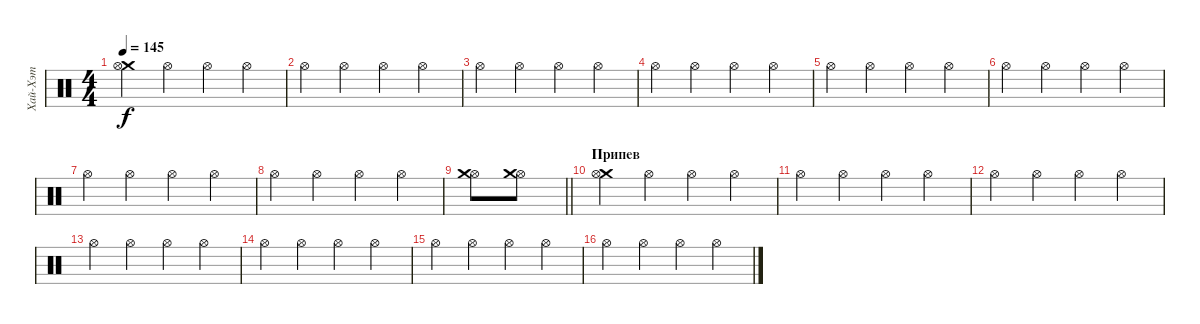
\track ("Хай-Хэт" "Хай-Хэт") {instrument percussion}
\staff {score}
\articulation defaults
\ts (4 4)
\tempo 145
\clef neutral
\ks c
("Crash medium (hit)" "Hi-Hat (open)").4{dy f} "Hi-Hat (open)".4 "Hi-Hat (open)".4 "Hi-Hat (open)".4 |
"Hi-Hat (open)".4 "Hi-Hat (open)".4 "Hi-Hat (open)".4 "Hi-Hat (open)".4 |
"Hi-Hat (open)".4 "Hi-Hat (open)".4 "Hi-Hat (open)".4 "Hi-Hat (open)".4 |
"Hi-Hat (open)".4 "Hi-Hat (open)".4 "Hi-Hat (open)".4 "Hi-Hat (open)".4 |
"Hi-Hat (open)".4 "Hi-Hat (open)".4 "Hi-Hat (open)".4 "Hi-Hat (open)".4 |
"Hi-Hat (open)".4 "Hi-Hat (open)".4 "Hi-Hat (open)".4 "Hi-Hat (open)".4 |
"Hi-Hat (open)".4 "Hi-Hat (open)".4 "Hi-Hat (open)".4 "Hi-Hat (open)".4 |
"Hi-Hat (open)".4 "Hi-Hat (open)".4 "Hi-Hat (open)".4 "Hi-Hat (open)".4 |
\barLineRight lightlight
("Hi-Hat (open)" "Crash medium (hit)").8 ("Hi-Hat (open)" "Crash medium (hit)").8 |
\section ("" "Припев")
("Crash medium (hit)" "Hi-Hat (open)").4 "Hi-Hat (open)".4 "Hi-Hat (open)".4 "Hi-Hat (open)".4 |
"Hi-Hat (open)".4 "Hi-Hat (open)".4 "Hi-Hat (open)".4 "Hi-Hat (open)".4 |
"Hi-Hat (open)".4 "Hi-Hat (open)".4 "Hi-Hat (open)".4 "Hi-Hat (open)".4 |
"Hi-Hat (open)".4 "Hi-Hat (open)".4 "Hi-Hat (open)".4 "Hi-Hat (open)".4 |
"Hi-Hat (open)".4 "Hi-Hat (open)".4 "Hi-Hat (open)".4 "Hi-Hat (open)".4 |
"Hi-Hat (open)".4 "Hi-Hat (open)".4 "Hi-Hat (open)".4 "Hi-Hat (open)".4 |
"Hi-Hat (open)".4 "Hi-Hat (open)".4 "Hi-Hat (open)".4 "Hi-Hat (open)".4
